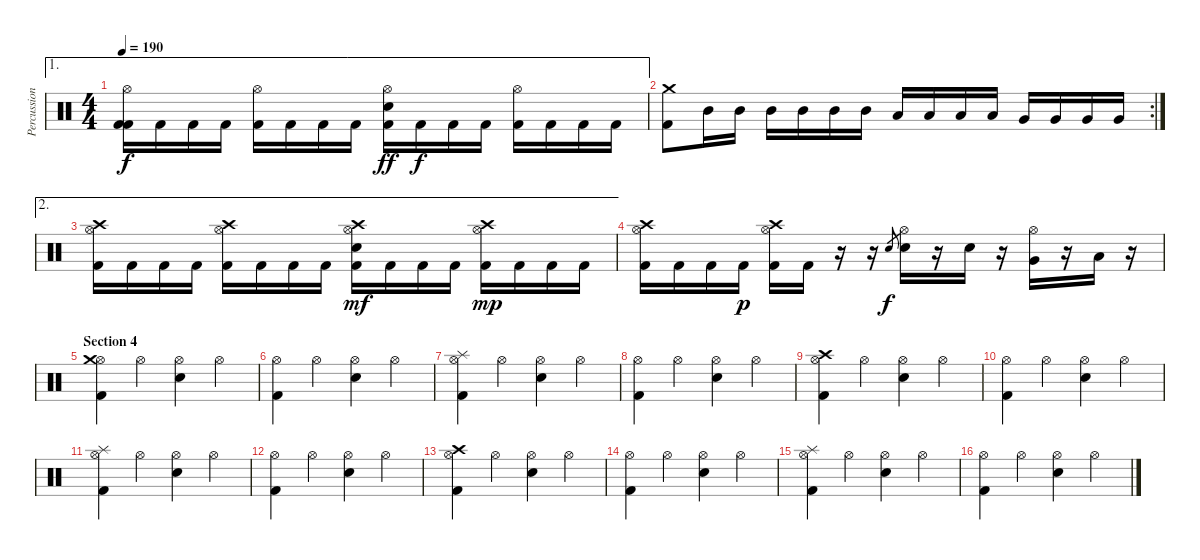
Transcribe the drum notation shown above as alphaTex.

\track ("Percussion" "Percussion") {instrument percussion}
\staff {score}
\articulation defaults
\ae 1
\ts (4 4)
\tempo 190
\clef neutral
\ks c
("Hi-Hat (open)" "Kick (hit) 2" "Kick (hit) 2").16{dy f} "Kick (hit) 2".16 "Kick (hit) 2".16 "Kick (hit) 2".16 ("Hi-Hat (open)" "Kick (hit) 2").16 "Kick (hit) 2".16 "Kick (hit) 2".16 "Kick (hit) 2".16 ("Hi-Hat (open)" "Electric Snare (hit)" "Kick (hit) 2").16{dy ff} "Kick (hit) 2".16{dy f} "Kick (hit) 2".16 "Kick (hit) 2".16 ("Hi-Hat (open)" "Kick (hit) 2").16 "Kick (hit) 2".16 "Kick (hit) 2".16 "Kick (hit) 2".16 |
\rc 2
("Crash medium (hit)" "Kick (hit) 2").8 "Mid Tom (hit)".16 "Mid Tom (hit)".16 "Mid Tom (hit)".16 "Mid Tom (hit)".16 "Mid Tom (hit)".16 "Mid Tom (hit)".16 "Low Tom (hit)".16 "Low Tom (hit)".16 "Low Tom (hit)".16 "Low Tom (hit)".16 "Very Low Tom (hit)".16 "Very Low Tom (hit)".16 "Very Low Tom (hit)".16 "Very Low Tom (hit)".16 |
\ae 2
("Hi-Hat (open)" "Crash high (hit)" "Kick (hit) 2").16 "Kick (hit) 2".16 "Kick (hit) 2".16 "Kick (hit) 2".16 ("Hi-Hat (open)" "Crash high (hit)" "Kick (hit) 2").16 "Kick (hit) 2".16 "Kick (hit) 2".16 "Kick (hit) 2".16 ("Hi-Hat (open)" "Crash high (hit)" "Electric Snare (hit)" "Kick (hit) 2").16{dy mf} "Kick (hit) 2".16 "Kick (hit) 2".16 "Kick (hit) 2".16 ("Hi-Hat (open)" "Crash high (hit)" "Kick (hit) 2").16{dy mp} "Kick (hit) 2".16 "Kick (hit) 2".16 "Kick (hit) 2".16 |
("Hi-Hat (open)" "Crash high (hit)" "Kick (hit) 2").16 "Kick (hit) 2".16 "Kick (hit) 2".16 "Kick (hit) 2".16{dy p} ("Hi-Hat (open)" "Crash high (hit)" "Kick (hit) 2").16 "Kick (hit) 2".16 r.16 r.16 "Electric Snare (hit)".8{gr dy f} ("Hi-Hat (open)" "Electric Snare (hit)").16 r.16 "Snare (hit) 2".16 r.16 ("Hi-Hat (open)" "Very Low Tom (hit)").16 r.16 "Low Floor Tom (hit)".16 r.16 |
\section ("" "Section 4")
("Hi-Hat (open)" "Kick (hit) 2" "Crash medium (hit)").4 "Hi-Hat (open)".4 ("Hi-Hat (open)" "Electric Snare (hit)").4 "Hi-Hat (open)".4 |
("Hi-Hat (open)" "Kick (hit) 2").4 "Hi-Hat (open)".4 ("Hi-Hat (open)" "Electric Snare (hit)").4 "Hi-Hat (open)".4 |
("Hi-Hat (open)" "Kick (hit) 2" "Splash (hit)").4 "Hi-Hat (open)".4 ("Hi-Hat (open)" "Electric Snare (hit)").4 "Hi-Hat (open)".4 |
("Hi-Hat (open)" "Kick (hit) 2").4 "Hi-Hat (open)".4 ("Hi-Hat (open)" "Electric Snare (hit)").4 "Hi-Hat (open)".4 |
("Hi-Hat (open)" "Kick (hit) 2" "Crash high (hit)").4 "Hi-Hat (open)".4 ("Hi-Hat (open)" "Electric Snare (hit)").4 "Hi-Hat (open)".4 |
("Hi-Hat (open)" "Kick (hit) 2").4 "Hi-Hat (open)".4 ("Hi-Hat (open)" "Electric Snare (hit)").4 "Hi-Hat (open)".4 |
("Hi-Hat (open)" "Kick (hit) 2" "Splash (hit)").4 "Hi-Hat (open)".4 ("Hi-Hat (open)" "Electric Snare (hit)").4 "Hi-Hat (open)".4 |
("Hi-Hat (open)" "Kick (hit) 2").4 "Hi-Hat (open)".4 ("Hi-Hat (open)" "Electric Snare (hit)").4 "Hi-Hat (open)".4 |
("Hi-Hat (open)" "Kick (hit) 2" "Crash high (hit)").4 "Hi-Hat (open)".4 ("Hi-Hat (open)" "Electric Snare (hit)").4 "Hi-Hat (open)".4 |
("Hi-Hat (open)" "Kick (hit) 2").4 "Hi-Hat (open)".4 ("Hi-Hat (open)" "Electric Snare (hit)").4 "Hi-Hat (open)".4 |
("Hi-Hat (open)" "Kick (hit) 2" "Splash (hit)").4 "Hi-Hat (open)".4 ("Hi-Hat (open)" "Electric Snare (hit)").4 "Hi-Hat (open)".4 |
("Hi-Hat (open)" "Kick (hit) 2").4 "Hi-Hat (open)".4 ("Hi-Hat (open)" "Electric Snare (hit)").4 "Hi-Hat (open)".4
